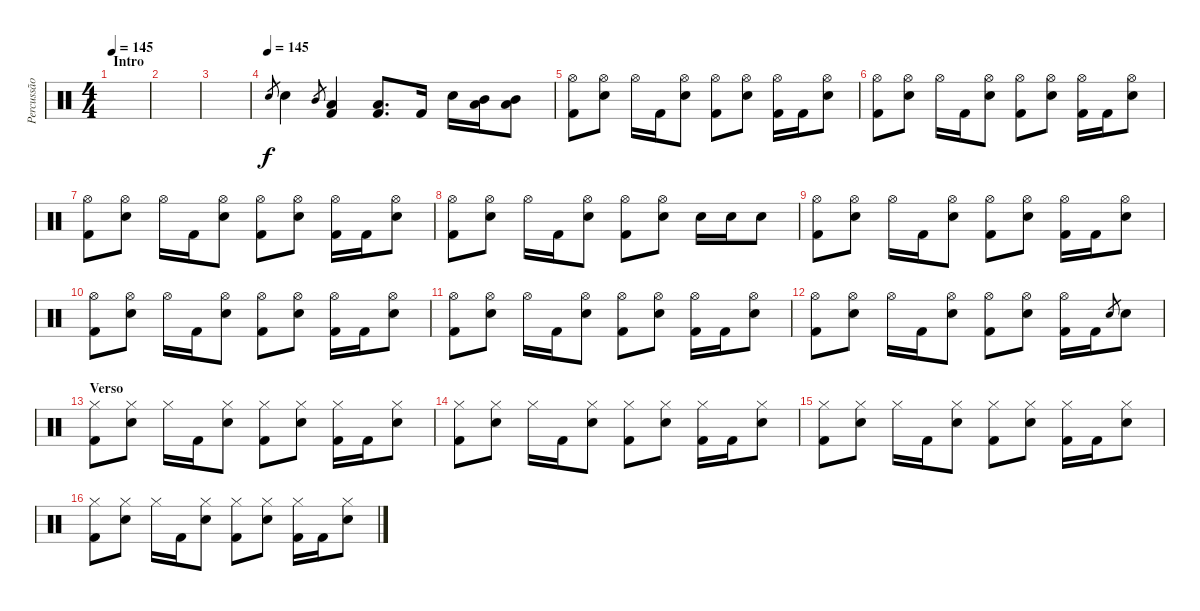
\track ("Percussão" "Percussão") {instrument percussion}
\staff {score}
\articulation defaults
\ts (4 4)
\section ("" "Intro")
\tempo 145
\tempo 135
\tempo 145
\clef neutral
\ks c
|
|
|
\tempo (145)
"Snare (hit) 2".8{gr} "Snare (hit) 2".4 "Mid Tom (hit)".8{gr} ("Low Tom (hit)" "Kick (hit) 2").4 ("Low Tom (hit)" "Kick (hit) 2").8{d} "Kick (hit) 2".16 "Snare (hit) 2".16 ("Mid Tom (hit)" "Low Tom (hit)").16 ("Mid Tom (hit)" "Low Tom (hit)").8 |
("Hi-Hat (open)" "Kick (hit) 2").8 ("Hi-Hat (open)" "Snare (hit) 2").8 "Hi-Hat (open)".16 "Kick (hit) 2".16 ("Hi-Hat (open)" "Snare (hit) 2").8 ("Hi-Hat (open)" "Kick (hit) 2").8 ("Hi-Hat (open)" "Snare (hit) 2").8 ("Hi-Hat (open)" "Kick (hit) 2").16 "Kick (hit) 2".16 ("Hi-Hat (open)" "Snare (hit) 2").8 |
("Hi-Hat (open)" "Kick (hit) 2").8 ("Hi-Hat (open)" "Snare (hit) 2").8 "Hi-Hat (open)".16 "Kick (hit) 2".16 ("Hi-Hat (open)" "Snare (hit) 2").8 ("Hi-Hat (open)" "Kick (hit) 2").8 ("Hi-Hat (open)" "Snare (hit) 2").8 ("Hi-Hat (open)" "Kick (hit) 2").16 "Kick (hit) 2".16 ("Hi-Hat (open)" "Snare (hit) 2").8 |
("Hi-Hat (open)" "Kick (hit) 2").8 ("Hi-Hat (open)" "Snare (hit) 2").8 "Hi-Hat (open)".16 "Kick (hit) 2".16 ("Hi-Hat (open)" "Snare (hit) 2").8 ("Hi-Hat (open)" "Kick (hit) 2").8 ("Hi-Hat (open)" "Snare (hit) 2").8 ("Hi-Hat (open)" "Kick (hit) 2").16 "Kick (hit) 2".16 ("Hi-Hat (open)" "Snare (hit) 2").8 |
("Hi-Hat (open)" "Kick (hit) 2").8 ("Hi-Hat (open)" "Snare (hit) 2").8 "Hi-Hat (open)".16 "Kick (hit) 2".16 ("Hi-Hat (open)" "Snare (hit) 2").8 ("Hi-Hat (open)" "Kick (hit) 2").8 ("Hi-Hat (open)" "Snare (hit) 2").8 "Snare (hit) 2".16 "Snare (hit) 2".16 "Snare (hit) 2".8 |
("Hi-Hat (open)" "Kick (hit) 2").8 ("Hi-Hat (open)" "Snare (hit) 2").8 "Hi-Hat (open)".16 "Kick (hit) 2".16 ("Hi-Hat (open)" "Snare (hit) 2").8 ("Hi-Hat (open)" "Kick (hit) 2").8 ("Hi-Hat (open)" "Snare (hit) 2").8 ("Hi-Hat (open)" "Kick (hit) 2").16 "Kick (hit) 2".16 ("Hi-Hat (open)" "Snare (hit) 2").8 |
("Hi-Hat (open)" "Kick (hit) 2").8 ("Hi-Hat (open)" "Snare (hit) 2").8 "Hi-Hat (open)".16 "Kick (hit) 2".16 ("Hi-Hat (open)" "Snare (hit) 2").8 ("Hi-Hat (open)" "Kick (hit) 2").8 ("Hi-Hat (open)" "Snare (hit) 2").8 ("Hi-Hat (open)" "Kick (hit) 2").16 "Kick (hit) 2".16 ("Hi-Hat (open)" "Snare (hit) 2").8 |
("Hi-Hat (open)" "Kick (hit) 2").8 ("Hi-Hat (open)" "Snare (hit) 2").8 "Hi-Hat (open)".16 "Kick (hit) 2".16 ("Hi-Hat (open)" "Snare (hit) 2").8 ("Hi-Hat (open)" "Kick (hit) 2").8 ("Hi-Hat (open)" "Snare (hit) 2").8 ("Hi-Hat (open)" "Kick (hit) 2").16 "Kick (hit) 2".16 ("Hi-Hat (open)" "Snare (hit) 2").8 |
("Hi-Hat (open)" "Kick (hit) 2").8 ("Hi-Hat (open)" "Snare (hit) 2").8 "Hi-Hat (open)".16 "Kick (hit) 2".16 ("Hi-Hat (open)" "Snare (hit) 2").8 ("Hi-Hat (open)" "Kick (hit) 2").8 ("Hi-Hat (open)" "Snare (hit) 2").8 ("Hi-Hat (open)" "Kick (hit) 2").16 "Kick (hit) 2".16 "Snare (hit) 2".8{gr} "Snare (hit) 2".8 |
\section ("" "Verso")
("Hi-Hat (closed)" "Kick (hit) 2").8 ("Hi-Hat (closed)" "Snare (hit) 2").8 "Hi-Hat (closed)".16 "Kick (hit) 2".16 ("Hi-Hat (closed)" "Snare (hit) 2").8 ("Hi-Hat (closed)" "Kick (hit) 2").8 ("Hi-Hat (closed)" "Snare (hit) 2").8 ("Hi-Hat (closed)" "Kick (hit) 2").16 "Kick (hit) 2".16 ("Hi-Hat (closed)" "Snare (hit) 2").8 |
("Hi-Hat (closed)" "Kick (hit) 2").8 ("Hi-Hat (closed)" "Snare (hit) 2").8 "Hi-Hat (closed)".16 "Kick (hit) 2".16 ("Hi-Hat (closed)" "Snare (hit) 2").8 ("Hi-Hat (closed)" "Kick (hit) 2").8 ("Hi-Hat (closed)" "Snare (hit) 2").8 ("Hi-Hat (closed)" "Kick (hit) 2").16 "Kick (hit) 2".16 ("Hi-Hat (closed)" "Snare (hit) 2").8 |
("Hi-Hat (closed)" "Kick (hit) 2").8 ("Hi-Hat (closed)" "Snare (hit) 2").8 "Hi-Hat (closed)".16 "Kick (hit) 2".16 ("Hi-Hat (closed)" "Snare (hit) 2").8 ("Hi-Hat (closed)" "Kick (hit) 2").8 ("Hi-Hat (closed)" "Snare (hit) 2").8 ("Hi-Hat (closed)" "Kick (hit) 2").16 "Kick (hit) 2".16 ("Hi-Hat (closed)" "Snare (hit) 2").8 |
("Hi-Hat (closed)" "Kick (hit) 2").8 ("Hi-Hat (closed)" "Snare (hit) 2").8 "Hi-Hat (closed)".16 "Kick (hit) 2".16 ("Hi-Hat (closed)" "Snare (hit) 2").8 ("Hi-Hat (closed)" "Kick (hit) 2").8 ("Hi-Hat (closed)" "Snare (hit) 2").8 ("Hi-Hat (closed)" "Kick (hit) 2").16 "Kick (hit) 2".16 ("Hi-Hat (closed)" "Snare (hit) 2").8
